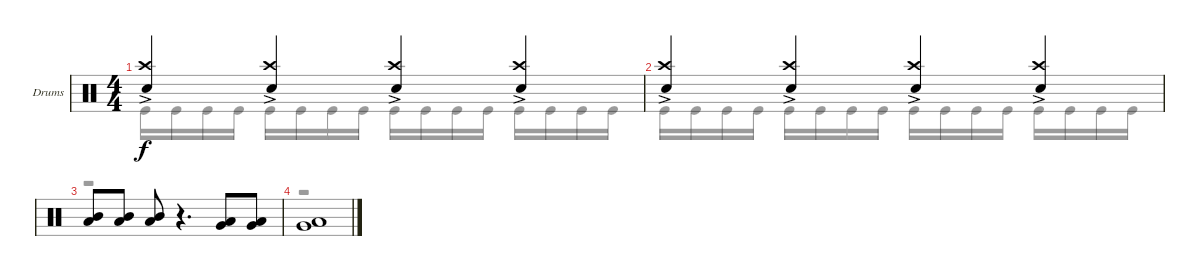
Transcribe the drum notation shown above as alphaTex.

\bracketExtendMode groupsimilarinstruments
\firstSystemTrackNameOrientation horizontal
\otherSystemsTrackNameOrientation horizontal
\track ("Drumkit" "Drums") {instrument percussion}
\staff {score}
\articulation defaults
\voice
\ts (4 4)
\tempo (184 hide)
\clef neutral
\ks c
("Crash high (hit)" "Snare (hit) 2"{ac}).4{dy f} ("Crash high (hit)" "Snare (hit) 2"{ac}).4 ("Crash high (hit)" "Snare (hit) 2"{ac}).4 ("Crash high (hit)" "Snare (hit) 2"{ac}).4 |
("Crash high (hit)" "Snare (hit) 2"{ac}).4 ("Crash high (hit)" "Snare (hit) 2"{ac}).4 ("Crash high (hit)" "Snare (hit) 2"{ac}).4 ("Crash high (hit)" "Snare (hit) 2"{ac}).4 |
("Mid Tom (hit)" "Low Tom (hit)").8 ("Mid Tom (hit)" "Low Tom (hit)").8 ("Mid Tom (hit)" "Low Tom (hit)").8 r.4{d} ("Low Tom (hit)" "Very Low Tom (hit)").8 ("Low Tom (hit)" "Very Low Tom (hit)").8 |
("Low Tom (hit)" "Very Low Tom (hit)").1
\voice
\clef neutral
\ottava regular
\simile none
\ks c "Kick (hit)".16{dy f} "Kick (hit)".16 "Kick (hit)".16 "Kick (hit)".16 "Kick (hit)".16 "Kick (hit)".16 "Kick (hit)".16 "Kick (hit)".16 "Kick (hit)".16 "Kick (hit)".16 "Kick (hit)".16 "Kick (hit)".16 "Kick (hit)".16 "Kick (hit)".16 "Kick (hit)".16 "Kick (hit)".16
|
"Kick (hit)".16 "Kick (hit)".16 "Kick (hit)".16 "Kick (hit)".16 "Kick (hit)".16 "Kick (hit)".16 "Kick (hit)".16 "Kick (hit)".16 "Kick (hit)".16 "Kick (hit)".16 "Kick (hit)".16 "Kick (hit)".16 "Kick (hit)".16 "Kick (hit)".16 "Kick (hit)".16 "Kick (hit)".16 |
r.1 |
r.1
